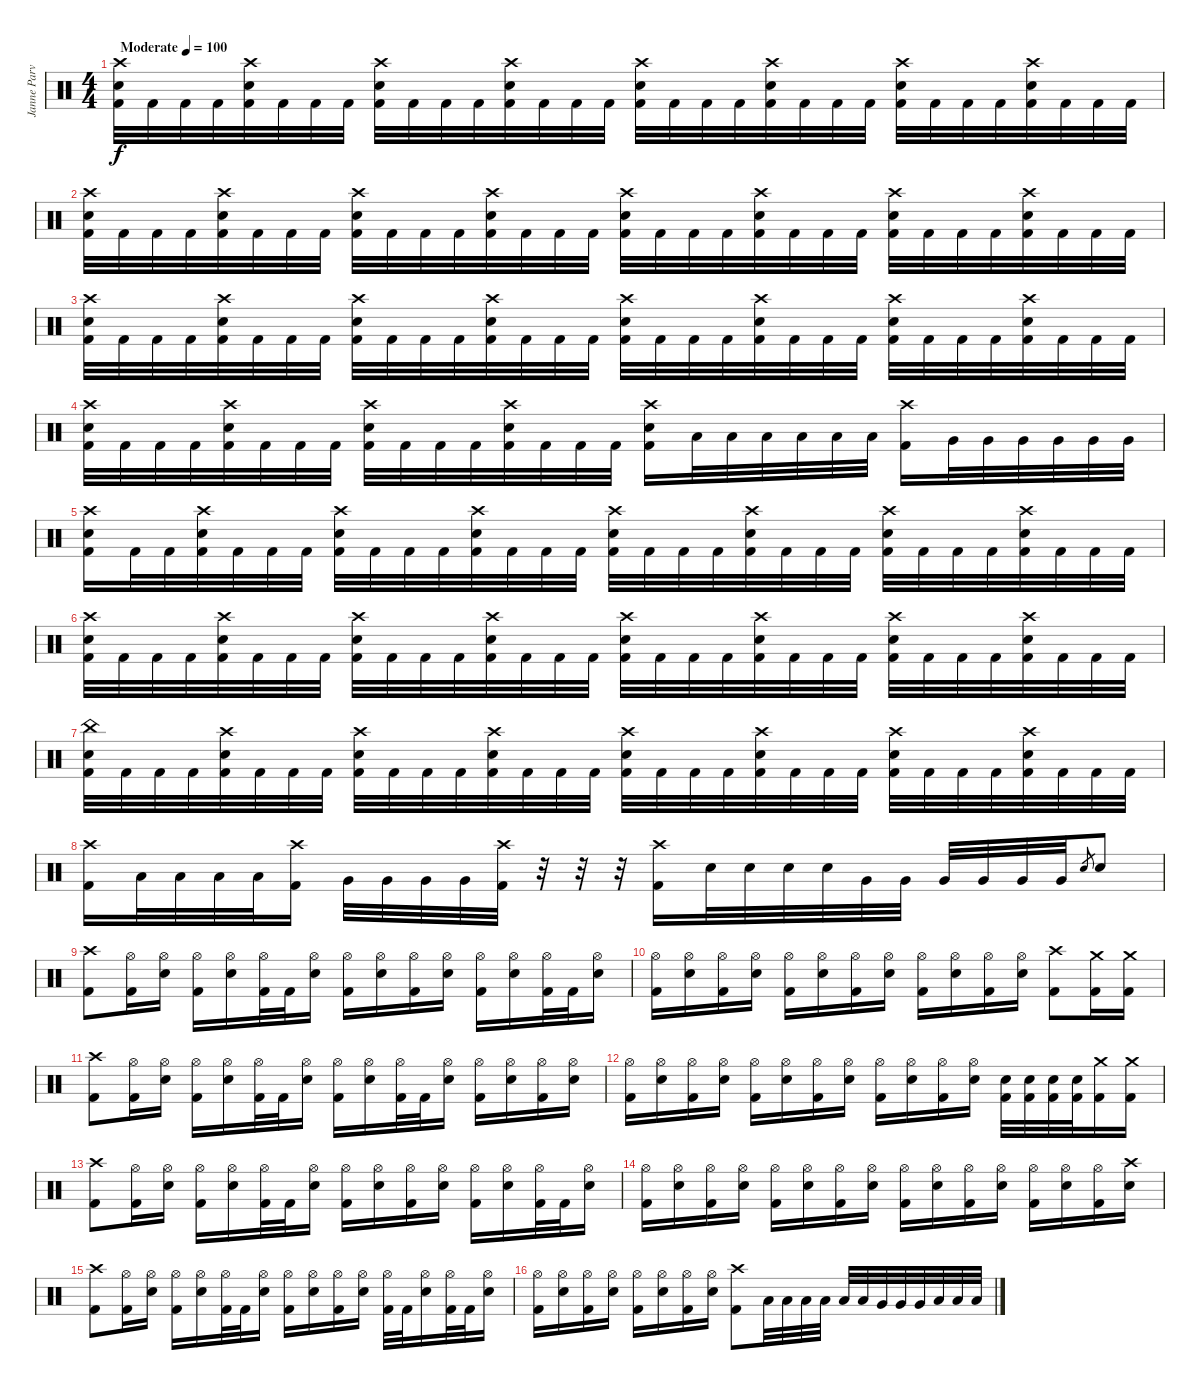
\track ("Janne Parviainen" "Janne Parv") {instrument percussion}
\staff {score}
\articulation defaults
\ts (4 4)
\tempo (100 "Moderate")
\clef neutral
\ks c
("Crash high (hit)" "Electric Snare (hit)" "Kick (hit) 2").32{dy f} "Kick (hit) 2".32 "Kick (hit) 2".32 "Kick (hit) 2".32 ("Crash high (hit)" "Electric Snare (hit)" "Kick (hit) 2").32 "Kick (hit) 2".32 "Kick (hit) 2".32 "Kick (hit) 2".32 ("Crash high (hit)" "Electric Snare (hit)" "Kick (hit) 2").32 "Kick (hit) 2".32 "Kick (hit) 2".32 "Kick (hit) 2".32 ("Crash high (hit)" "Electric Snare (hit)" "Kick (hit) 2").32 "Kick (hit) 2".32 "Kick (hit) 2".32 "Kick (hit) 2".32 ("Crash high (hit)" "Electric Snare (hit)" "Kick (hit) 2").32 "Kick (hit) 2".32 "Kick (hit) 2".32 "Kick (hit) 2".32 ("Crash high (hit)" "Electric Snare (hit)" "Kick (hit) 2").32 "Kick (hit) 2".32 "Kick (hit) 2".32 "Kick (hit) 2".32 ("Crash high (hit)" "Electric Snare (hit)" "Kick (hit) 2").32 "Kick (hit) 2".32 "Kick (hit) 2".32 "Kick (hit) 2".32 ("Crash high (hit)" "Electric Snare (hit)" "Kick (hit) 2").32 "Kick (hit) 2".32 "Kick (hit) 2".32 "Kick (hit) 2".32 |
("Crash high (hit)" "Electric Snare (hit)" "Kick (hit) 2").32 "Kick (hit) 2".32 "Kick (hit) 2".32 "Kick (hit) 2".32 ("Crash high (hit)" "Electric Snare (hit)" "Kick (hit) 2").32 "Kick (hit) 2".32 "Kick (hit) 2".32 "Kick (hit) 2".32 ("Crash high (hit)" "Electric Snare (hit)" "Kick (hit) 2").32 "Kick (hit) 2".32 "Kick (hit) 2".32 "Kick (hit) 2".32 ("Crash high (hit)" "Electric Snare (hit)" "Kick (hit) 2").32 "Kick (hit) 2".32 "Kick (hit) 2".32 "Kick (hit) 2".32 ("Crash high (hit)" "Electric Snare (hit)" "Kick (hit) 2").32 "Kick (hit) 2".32 "Kick (hit) 2".32 "Kick (hit) 2".32 ("Crash high (hit)" "Electric Snare (hit)" "Kick (hit) 2").32 "Kick (hit) 2".32 "Kick (hit) 2".32 "Kick (hit) 2".32 ("Crash high (hit)" "Electric Snare (hit)" "Kick (hit) 2").32 "Kick (hit) 2".32 "Kick (hit) 2".32 "Kick (hit) 2".32 ("Crash high (hit)" "Electric Snare (hit)" "Kick (hit) 2").32 "Kick (hit) 2".32 "Kick (hit) 2".32 "Kick (hit) 2".32 |
("Crash high (hit)" "Electric Snare (hit)" "Kick (hit) 2").32 "Kick (hit) 2".32 "Kick (hit) 2".32 "Kick (hit) 2".32 ("Crash high (hit)" "Electric Snare (hit)" "Kick (hit) 2").32 "Kick (hit) 2".32 "Kick (hit) 2".32 "Kick (hit) 2".32 ("Crash high (hit)" "Electric Snare (hit)" "Kick (hit) 2").32 "Kick (hit) 2".32 "Kick (hit) 2".32 "Kick (hit) 2".32 ("Crash high (hit)" "Electric Snare (hit)" "Kick (hit) 2").32 "Kick (hit) 2".32 "Kick (hit) 2".32 "Kick (hit) 2".32 ("Crash high (hit)" "Electric Snare (hit)" "Kick (hit) 2").32 "Kick (hit) 2".32 "Kick (hit) 2".32 "Kick (hit) 2".32 ("Crash high (hit)" "Electric Snare (hit)" "Kick (hit) 2").32 "Kick (hit) 2".32 "Kick (hit) 2".32 "Kick (hit) 2".32 ("Crash high (hit)" "Electric Snare (hit)" "Kick (hit) 2").32 "Kick (hit) 2".32 "Kick (hit) 2".32 "Kick (hit) 2".32 ("Crash high (hit)" "Electric Snare (hit)" "Kick (hit) 2").32 "Kick (hit) 2".32 "Kick (hit) 2".32 "Kick (hit) 2".32 |
("Crash high (hit)" "Electric Snare (hit)" "Kick (hit) 2").32 "Kick (hit) 2".32 "Kick (hit) 2".32 "Kick (hit) 2".32 ("Crash high (hit)" "Electric Snare (hit)" "Kick (hit) 2").32 "Kick (hit) 2".32 "Kick (hit) 2".32 "Kick (hit) 2".32 ("Crash high (hit)" "Electric Snare (hit)" "Kick (hit) 2").32 "Kick (hit) 2".32 "Kick (hit) 2".32 "Kick (hit) 2".32 ("Crash high (hit)" "Electric Snare (hit)" "Kick (hit) 2").32 "Kick (hit) 2".32 "Kick (hit) 2".32 "Kick (hit) 2".32 ("Crash high (hit)" "Electric Snare (hit)" "Kick (hit) 2").16 "Low Tom (hit)".32 "Low Tom (hit)".32 "Low Tom (hit)".32 "Low Tom (hit)".32 "Low Tom (hit)".32 "Low Tom (hit)".32 ("Crash high (hit)" "Kick (hit) 2").16 "Very Low Tom (hit)".32 "Very Low Tom (hit)".32 "Very Low Tom (hit)".32 "Very Low Tom (hit)".32 "Very Low Tom (hit)".32 "Very Low Tom (hit)".32 |
("Crash high (hit)" "Electric Snare (hit)" "Kick (hit) 2").16 "Kick (hit) 2".32 "Kick (hit) 2".32 ("Crash high (hit)" "Electric Snare (hit)" "Kick (hit) 2").32 "Kick (hit) 2".32 "Kick (hit) 2".32 "Kick (hit) 2".32 ("Crash high (hit)" "Electric Snare (hit)" "Kick (hit) 2").32 "Kick (hit) 2".32 "Kick (hit) 2".32 "Kick (hit) 2".32 ("Crash high (hit)" "Electric Snare (hit)" "Kick (hit) 2").32 "Kick (hit) 2".32 "Kick (hit) 2".32 "Kick (hit) 2".32 ("Crash high (hit)" "Electric Snare (hit)" "Kick (hit) 2").32 "Kick (hit) 2".32 "Kick (hit) 2".32 "Kick (hit) 2".32 ("Crash high (hit)" "Electric Snare (hit)" "Kick (hit) 2").32 "Kick (hit) 2".32 "Kick (hit) 2".32 "Kick (hit) 2".32 ("Crash high (hit)" "Electric Snare (hit)" "Kick (hit) 2").32 "Kick (hit) 2".32 "Kick (hit) 2".32 "Kick (hit) 2".32 ("Crash high (hit)" "Electric Snare (hit)" "Kick (hit) 2").32 "Kick (hit) 2".32 "Kick (hit) 2".32 "Kick (hit) 2".32 |
("Crash high (hit)" "Electric Snare (hit)" "Kick (hit) 2").32 "Kick (hit) 2".32 "Kick (hit) 2".32 "Kick (hit) 2".32 ("Crash high (hit)" "Electric Snare (hit)" "Kick (hit) 2").32 "Kick (hit) 2".32 "Kick (hit) 2".32 "Kick (hit) 2".32 ("Crash high (hit)" "Electric Snare (hit)" "Kick (hit) 2").32 "Kick (hit) 2".32 "Kick (hit) 2".32 "Kick (hit) 2".32 ("Crash high (hit)" "Electric Snare (hit)" "Kick (hit) 2").32 "Kick (hit) 2".32 "Kick (hit) 2".32 "Kick (hit) 2".32 ("Crash high (hit)" "Electric Snare (hit)" "Kick (hit) 2").32 "Kick (hit) 2".32 "Kick (hit) 2".32 "Kick (hit) 2".32 ("Crash high (hit)" "Electric Snare (hit)" "Kick (hit) 2").32 "Kick (hit) 2".32 "Kick (hit) 2".32 "Kick (hit) 2".32 ("Crash high (hit)" "Electric Snare (hit)" "Kick (hit) 2").32 "Kick (hit) 2".32 "Kick (hit) 2".32 "Kick (hit) 2".32 ("Crash high (hit)" "Electric Snare (hit)" "Kick (hit) 2").32 "Kick (hit) 2".32 "Kick (hit) 2".32 "Kick (hit) 2".32 |
("China (hit)" "Electric Snare (hit)" "Kick (hit) 2").32 "Kick (hit) 2".32 "Kick (hit) 2".32 "Kick (hit) 2".32 ("Crash high (hit)" "Electric Snare (hit)" "Kick (hit) 2").32 "Kick (hit) 2".32 "Kick (hit) 2".32 "Kick (hit) 2".32 ("Crash high (hit)" "Electric Snare (hit)" "Kick (hit) 2").32 "Kick (hit) 2".32 "Kick (hit) 2".32 "Kick (hit) 2".32 ("Crash high (hit)" "Electric Snare (hit)" "Kick (hit) 2").32 "Kick (hit) 2".32 "Kick (hit) 2".32 "Kick (hit) 2".32 ("Crash high (hit)" "Electric Snare (hit)" "Kick (hit) 2").32 "Kick (hit) 2".32 "Kick (hit) 2".32 "Kick (hit) 2".32 ("Crash high (hit)" "Electric Snare (hit)" "Kick (hit) 2").32 "Kick (hit) 2".32 "Kick (hit) 2".32 "Kick (hit) 2".32 ("Crash high (hit)" "Electric Snare (hit)" "Kick (hit) 2").32 "Kick (hit) 2".32 "Kick (hit) 2".32 "Kick (hit) 2".32 ("Crash high (hit)" "Electric Snare (hit)" "Kick (hit) 2").32 "Kick (hit) 2".32 "Kick (hit) 2".32 "Kick (hit) 2".32 |
("Crash high (hit)" "Kick (hit) 2").16 "Low Tom (hit)".32 "Low Tom (hit)".32 "Low Tom (hit)".32 "Low Tom (hit)".32 ("Crash high (hit)" "Kick (hit) 2").16 "Very Low Tom (hit)".32 "Very Low Tom (hit)".32 "Very Low Tom (hit)".32 "Very Low Tom (hit)".32 ("Crash high (hit)" "Kick (hit) 2").32 r.32 r.32 r.32 ("Crash high (hit)" "Kick (hit) 2").16 "Electric Snare (hit)".32 "Electric Snare (hit)".32 "Electric Snare (hit)".32 "Electric Snare (hit)".32 "Very Low Tom (hit)".32 "Very Low Tom (hit)".32 "Very Low Tom (hit)".32 "Very Low Tom (hit)".32 "Very Low Tom (hit)".32 "Very Low Tom (hit)".32 "Electric Snare (hit)".8{gr} "Electric Snare (hit)".8 |
("Crash high (hit)" "Kick (hit) 2").8 ("Hi-Hat (open)" "Kick (hit) 2").16 ("Hi-Hat (open)" "Electric Snare (hit)").16 ("Hi-Hat (open)" "Kick (hit) 2").16 ("Hi-Hat (open)" "Electric Snare (hit)").16 ("Hi-Hat (open)" "Kick (hit) 2").32 "Kick (hit) 2".32 ("Hi-Hat (open)" "Electric Snare (hit)").16 ("Hi-Hat (open)" "Kick (hit) 2").16 ("Hi-Hat (open)" "Electric Snare (hit)").16 ("Hi-Hat (open)" "Kick (hit) 2").16 ("Hi-Hat (open)" "Electric Snare (hit)").16 ("Hi-Hat (open)" "Kick (hit) 2").16 ("Hi-Hat (open)" "Electric Snare (hit)").16 ("Hi-Hat (open)" "Kick (hit) 2").32 "Kick (hit) 2".32 ("Hi-Hat (open)" "Electric Snare (hit)").16 |
("Hi-Hat (open)" "Kick (hit) 2").16 ("Hi-Hat (open)" "Electric Snare (hit)").16 ("Hi-Hat (open)" "Kick (hit) 2").16 ("Hi-Hat (open)" "Electric Snare (hit)").16 ("Hi-Hat (open)" "Kick (hit) 2").16 ("Hi-Hat (open)" "Electric Snare (hit)").16 ("Hi-Hat (open)" "Kick (hit) 2").16 ("Hi-Hat (open)" "Electric Snare (hit)").16 ("Hi-Hat (open)" "Kick (hit) 2").16 ("Hi-Hat (open)" "Electric Snare (hit)").16 ("Hi-Hat (open)" "Kick (hit) 2").16 ("Hi-Hat (open)" "Electric Snare (hit)").16 ("Crash high (hit)" "Kick (hit) 2").8 ("Crash medium (hit)" "Kick (hit) 2").16 ("Crash medium (hit)" "Kick (hit) 2").16 |
("Crash high (hit)" "Kick (hit) 2").8 ("Hi-Hat (open)" "Kick (hit) 2").16 ("Hi-Hat (open)" "Electric Snare (hit)").16 ("Hi-Hat (open)" "Kick (hit) 2").16 ("Hi-Hat (open)" "Electric Snare (hit)").16 ("Hi-Hat (open)" "Kick (hit) 2").32 "Kick (hit) 2".32 ("Hi-Hat (open)" "Electric Snare (hit)").16 ("Hi-Hat (open)" "Kick (hit) 2").16 ("Hi-Hat (open)" "Electric Snare (hit)").16 ("Hi-Hat (open)" "Kick (hit) 2").32 "Kick (hit) 2".32 ("Hi-Hat (open)" "Electric Snare (hit)").16 ("Hi-Hat (open)" "Kick (hit) 2").16 ("Hi-Hat (open)" "Electric Snare (hit)").16 ("Hi-Hat (open)" "Kick (hit) 2").16 ("Hi-Hat (open)" "Electric Snare (hit)").16 |
("Hi-Hat (open)" "Kick (hit) 2").16 ("Hi-Hat (open)" "Electric Snare (hit)").16 ("Hi-Hat (open)" "Kick (hit) 2").16 ("Hi-Hat (open)" "Electric Snare (hit)").16 ("Hi-Hat (open)" "Kick (hit) 2").16 ("Hi-Hat (open)" "Electric Snare (hit)").16 ("Hi-Hat (open)" "Kick (hit) 2").16 ("Hi-Hat (open)" "Electric Snare (hit)").16 ("Hi-Hat (open)" "Kick (hit) 2").16 ("Hi-Hat (open)" "Electric Snare (hit)").16 ("Hi-Hat (open)" "Kick (hit) 2").16 ("Hi-Hat (open)" "Electric Snare (hit)").16 ("Electric Snare (hit)" "Kick (hit) 2").32 ("Electric Snare (hit)" "Kick (hit) 2").32 ("Electric Snare (hit)" "Kick (hit) 2").32 ("Electric Snare (hit)" "Kick (hit) 2").32 ("Crash medium (hit)" "Kick (hit) 2").16 ("Crash medium (hit)" "Kick (hit) 2").16 |
("Crash high (hit)" "Kick (hit) 2").8 ("Hi-Hat (open)" "Kick (hit) 2").16 ("Hi-Hat (open)" "Electric Snare (hit)").16 ("Hi-Hat (open)" "Kick (hit) 2").16 ("Hi-Hat (open)" "Electric Snare (hit)").16 ("Hi-Hat (open)" "Kick (hit) 2").32 "Kick (hit) 2".32 ("Hi-Hat (open)" "Electric Snare (hit)").16 ("Hi-Hat (open)" "Kick (hit) 2").16 ("Hi-Hat (open)" "Electric Snare (hit)").16 ("Hi-Hat (open)" "Kick (hit) 2").16 ("Hi-Hat (open)" "Electric Snare (hit)").16 ("Hi-Hat (open)" "Kick (hit) 2").16 ("Hi-Hat (open)" "Electric Snare (hit)").16 ("Hi-Hat (open)" "Kick (hit) 2").32 "Kick (hit) 2".32 ("Hi-Hat (open)" "Electric Snare (hit)").16 |
("Hi-Hat (open)" "Kick (hit) 2").16 ("Hi-Hat (open)" "Electric Snare (hit)").16 ("Hi-Hat (open)" "Kick (hit) 2").16 ("Hi-Hat (open)" "Electric Snare (hit)").16 ("Hi-Hat (open)" "Kick (hit) 2").16 ("Hi-Hat (open)" "Electric Snare (hit)").16 ("Hi-Hat (open)" "Kick (hit) 2").16 ("Hi-Hat (open)" "Electric Snare (hit)").16 ("Hi-Hat (open)" "Kick (hit) 2").16 ("Hi-Hat (open)" "Electric Snare (hit)").16 ("Hi-Hat (open)" "Kick (hit) 2").16 ("Hi-Hat (open)" "Electric Snare (hit)").16 ("Hi-Hat (open)" "Kick (hit) 2").16 ("Hi-Hat (open)" "Electric Snare (hit)").16 ("Hi-Hat (open)" "Kick (hit) 2").16 ("Crash high (hit)" "Electric Snare (hit)").16 |
("Crash high (hit)" "Kick (hit) 2").8 ("Hi-Hat (open)" "Kick (hit) 2").16 ("Hi-Hat (open)" "Electric Snare (hit)").16 ("Hi-Hat (open)" "Kick (hit) 2").16 ("Hi-Hat (open)" "Electric Snare (hit)").16 ("Hi-Hat (open)" "Kick (hit) 2").32 "Kick (hit) 2".32 ("Hi-Hat (open)" "Electric Snare (hit)").16 ("Hi-Hat (open)" "Kick (hit) 2").16 ("Hi-Hat (open)" "Electric Snare (hit)").16 ("Hi-Hat (open)" "Kick (hit) 2").16 ("Hi-Hat (open)" "Electric Snare (hit)").16 ("Hi-Hat (open)" "Kick (hit) 2").32 "Kick (hit) 2".32 ("Hi-Hat (open)" "Electric Snare (hit)").16 ("Hi-Hat (open)" "Kick (hit) 2").32 "Kick (hit) 2".32 ("Hi-Hat (open)" "Electric Snare (hit)").16 |
("Hi-Hat (open)" "Kick (hit) 2").16 ("Hi-Hat (open)" "Electric Snare (hit)").16 ("Hi-Hat (open)" "Kick (hit) 2").16 ("Hi-Hat (open)" "Electric Snare (hit)").16 ("Hi-Hat (open)" "Kick (hit) 2").16 ("Hi-Hat (open)" "Electric Snare (hit)").16 ("Hi-Hat (open)" "Kick (hit) 2").16 ("Hi-Hat (open)" "Electric Snare (hit)").16 ("Crash high (hit)" "Kick (hit) 2").8 "Low Tom (hit)".32 "Low Tom (hit)".32 "Low Tom (hit)".32 "Low Tom (hit)".32 "Low Tom (hit)".32 "Low Tom (hit)".32 "Very Low Tom (hit)".32 "Very Low Tom (hit)".32 "Very Low Tom (hit)".32 "Low Floor Tom (hit)".32 "Low Floor Tom (hit)".32 "Low Floor Tom (hit)".32
